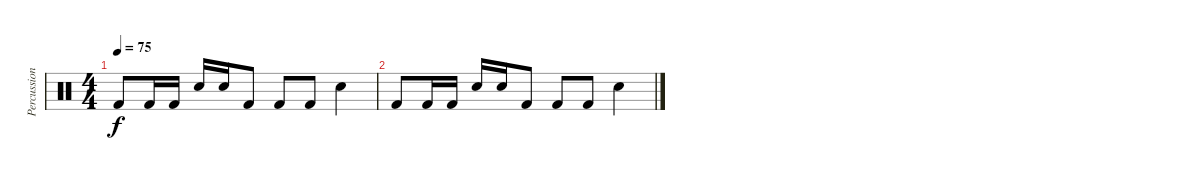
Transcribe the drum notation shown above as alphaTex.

\track ("Percussions" "Percussion") {instrument percussion}
\staff {score}
\articulation defaults
\ts (4 4)
\tempo 75
\clef neutral
\ks c "Kick (hit) 2".8{dy f} "Kick (hit) 2".16 "Kick (hit) 2".16 "Electric Snare (hit)".16 "Electric Snare (hit)".16 "Kick (hit) 2".8 "Kick (hit) 2".8 "Kick (hit) 2".8 "Electric Snare (hit)".4
|
"Kick (hit) 2".8 "Kick (hit) 2".16 "Kick (hit) 2".16 "Electric Snare (hit)".16 "Electric Snare (hit)".16 "Kick (hit) 2".8 "Kick (hit) 2".8 "Kick (hit) 2".8 "Electric Snare (hit)".4
